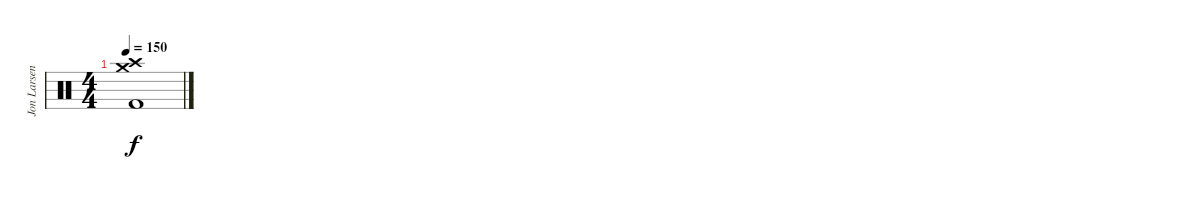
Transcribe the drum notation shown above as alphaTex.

\track ("Jon Larsen" "Jon Larsen") {instrument percussion}
\staff {score}
\articulation defaults
\ts (4 4)
\tempo 150
\clef neutral
\ks c
("Crash high (hit)" "Crash medium (hit)" "Kick (hit) 2").1{dy f}
